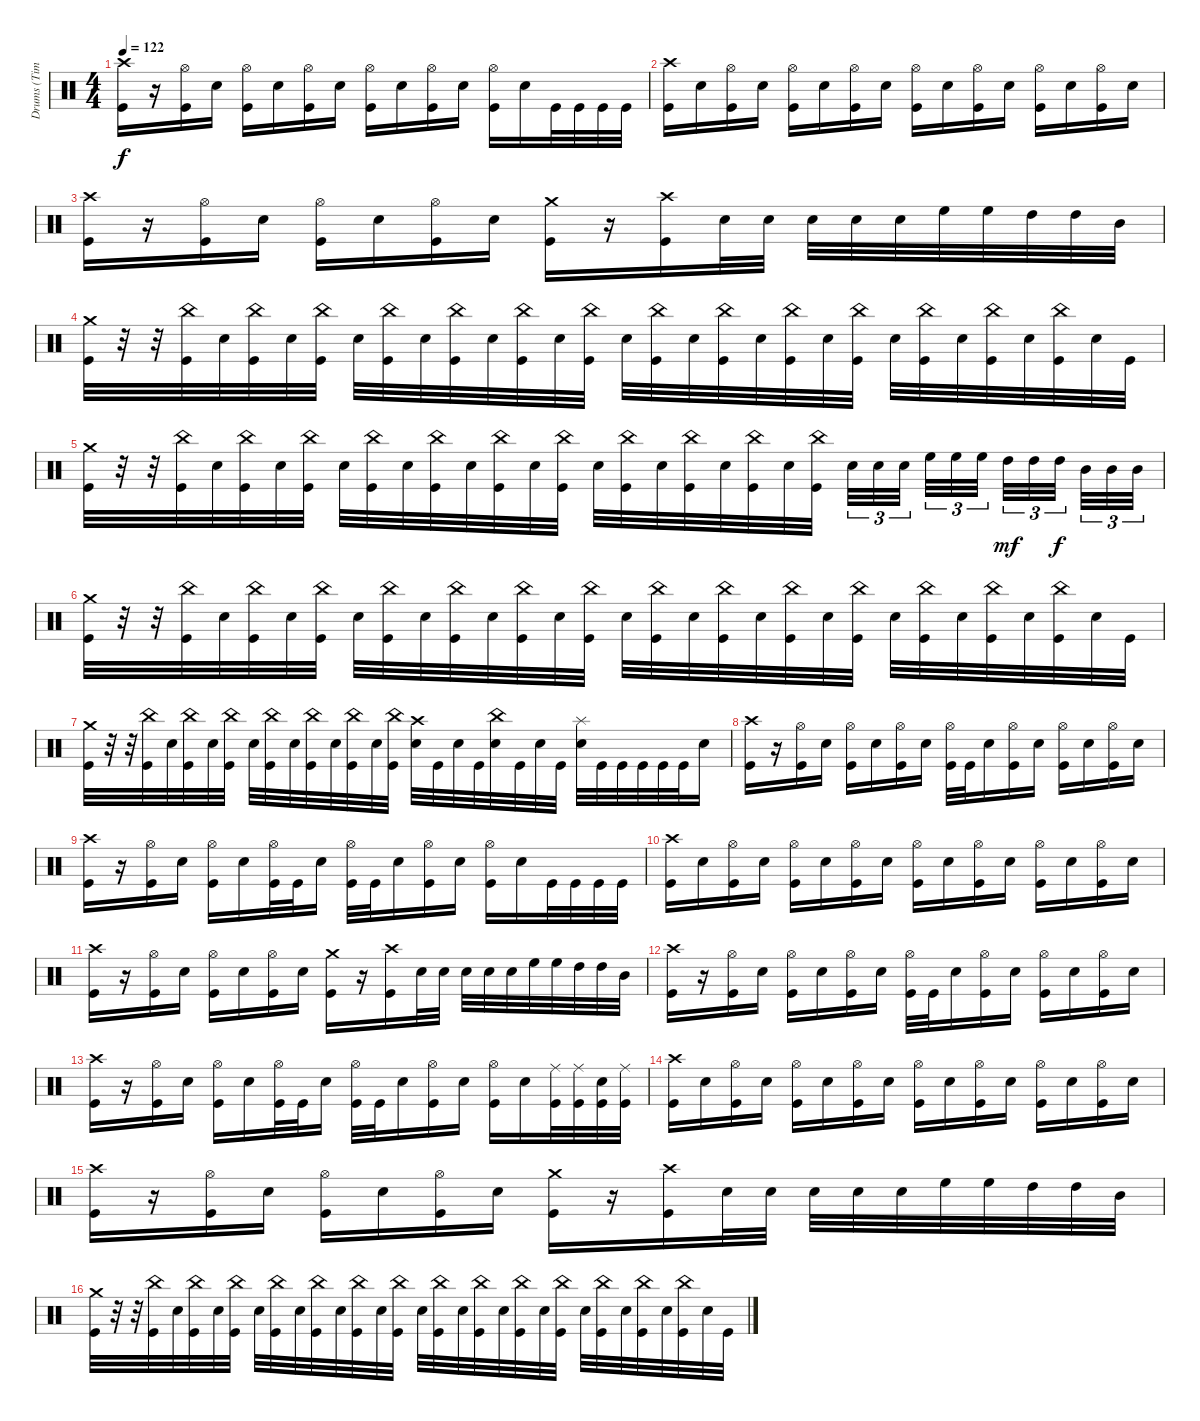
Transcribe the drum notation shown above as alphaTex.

\track ("Drums (Tim Yeung)" "Drums (Tim") {instrument percussion}
\staff {score}
\articulation defaults
\ts (4 4)
\tempo 122
\clef neutral
\ks c
("Crash high (hit)" "Kick (hit)").16{dy f} r.16 ("Hi-Hat (open)" "Kick (hit)").16 "Electric Snare (hit)".16 ("Hi-Hat (open)" "Kick (hit)").16 "Electric Snare (hit)".16 ("Hi-Hat (open)" "Kick (hit)").16 "Electric Snare (hit)".16 ("Hi-Hat (open)" "Kick (hit)").16 "Electric Snare (hit)".16 ("Hi-Hat (open)" "Kick (hit)").16 "Electric Snare (hit)".16 ("Hi-Hat (open)" "Kick (hit)").16 "Electric Snare (hit)".16 "Kick (hit)".32 "Kick (hit)".32 "Kick (hit)".32 "Kick (hit)".32 |
("Crash high (hit)" "Kick (hit)").16 "Electric Snare (hit)".16 ("Hi-Hat (open)" "Kick (hit)").16 "Electric Snare (hit)".16 ("Hi-Hat (open)" "Kick (hit)").16 "Electric Snare (hit)".16 ("Hi-Hat (open)" "Kick (hit)").16 "Electric Snare (hit)".16 ("Hi-Hat (open)" "Kick (hit)").16 "Electric Snare (hit)".16 ("Hi-Hat (open)" "Kick (hit)").16 "Electric Snare (hit)".16 ("Hi-Hat (open)" "Kick (hit)").16 "Electric Snare (hit)".16 ("Hi-Hat (open)" "Kick (hit)").16 "Electric Snare (hit)".16 |
("Crash high (hit)" "Kick (hit)").16 r.16 ("Hi-Hat (open)" "Kick (hit)").16 "Electric Snare (hit)".16 ("Hi-Hat (open)" "Kick (hit)").16 "Electric Snare (hit)".16 ("Hi-Hat (open)" "Kick (hit)").16 "Electric Snare (hit)".16 ("Crash medium (hit)" "Kick (hit)").16 r.16 ("Crash high (hit)" "Kick (hit)").16 "Electric Snare (hit)".32 "Electric Snare (hit)".32 "Electric Snare (hit)".32 "Electric Snare (hit)".32 "Electric Snare (hit)".32 "High Floor Tom (hit)".32 "High Floor Tom (hit)".32 "High Tom (hit)".32 "High Tom (hit)".32 "Mid Tom (hit)".32 |
("Crash medium (hit)" "Kick (hit)").32 r.32 r.32 ("China (hit)" "Kick (hit)").32 "Electric Snare (hit)".32 ("China (hit)" "Kick (hit)").32 "Electric Snare (hit)".32 ("China (hit)" "Kick (hit)").32 "Electric Snare (hit)".32 ("China (hit)" "Kick (hit)").32 "Electric Snare (hit)".32 ("China (hit)" "Kick (hit)").32 "Electric Snare (hit)".32 ("China (hit)" "Kick (hit)").32 "Electric Snare (hit)".32 ("China (hit)" "Kick (hit)").32 "Electric Snare (hit)".32 ("China (hit)" "Kick (hit)").32 "Electric Snare (hit)".32 ("China (hit)" "Kick (hit)").32 "Electric Snare (hit)".32 ("China (hit)" "Kick (hit)").32 "Electric Snare (hit)".32 ("China (hit)" "Kick (hit)").32 "Electric Snare (hit)".32 ("China (hit)" "Kick (hit)").32 "Electric Snare (hit)".32 ("China (hit)" "Kick (hit)").32 "Electric Snare (hit)".32 ("China (hit)" "Kick (hit)").32 "Electric Snare (hit)".32 "Kick (hit)".32 |
("Crash medium (hit)" "Kick (hit)").32 r.32 r.32 ("China (hit)" "Kick (hit)").32 "Electric Snare (hit)".32 ("China (hit)" "Kick (hit)").32 "Electric Snare (hit)".32 ("China (hit)" "Kick (hit)").32 "Electric Snare (hit)".32 ("China (hit)" "Kick (hit)").32 "Electric Snare (hit)".32 ("China (hit)" "Kick (hit)").32 "Electric Snare (hit)".32 ("China (hit)" "Kick (hit)").32 "Electric Snare (hit)".32 ("China (hit)" "Kick (hit)").32 "Electric Snare (hit)".32 ("China (hit)" "Kick (hit)").32 "Electric Snare (hit)".32 ("China (hit)" "Kick (hit)").32 "Electric Snare (hit)".32 ("China (hit)" "Kick (hit)").32 "Electric Snare (hit)".32 ("China (hit)" "Kick (hit)").32 "Electric Snare (hit)".32{tu (3 2)} "Electric Snare (hit)".32{tu (3 2)} "Electric Snare (hit)".32{tu (3 2)} "High Floor Tom (hit)".32{tu (3 2)} "High Floor Tom (hit)".32{tu (3 2)} "High Floor Tom (hit)".32{tu (3 2)} "High Tom (hit)".32{tu (3 2) dy mf} "High Tom (hit)".32{tu (3 2)} "High Tom (hit)".32{tu (3 2) dy f} "Mid Tom (hit)".32{tu (3 2)} "Mid Tom (hit)".32{tu (3 2)} "Mid Tom (hit)".32{tu (3 2)} |
("Crash medium (hit)" "Kick (hit)").32 r.32 r.32 ("China (hit)" "Kick (hit)").32 "Electric Snare (hit)".32 ("China (hit)" "Kick (hit)").32 "Electric Snare (hit)".32 ("China (hit)" "Kick (hit)").32 "Electric Snare (hit)".32 ("China (hit)" "Kick (hit)").32 "Electric Snare (hit)".32 ("China (hit)" "Kick (hit)").32 "Electric Snare (hit)".32 ("China (hit)" "Kick (hit)").32 "Electric Snare (hit)".32 ("China (hit)" "Kick (hit)").32 "Electric Snare (hit)".32 ("China (hit)" "Kick (hit)").32 "Electric Snare (hit)".32 ("China (hit)" "Kick (hit)").32 "Electric Snare (hit)".32 ("China (hit)" "Kick (hit)").32 "Electric Snare (hit)".32 ("China (hit)" "Kick (hit)").32 "Electric Snare (hit)".32 ("China (hit)" "Kick (hit)").32 "Electric Snare (hit)".32 ("China (hit)" "Kick (hit)").32 "Electric Snare (hit)".32 ("China (hit)" "Kick (hit)").32 "Electric Snare (hit)".32 "Kick (hit)".32 |
("Crash medium (hit)" "Kick (hit)").32 r.32 r.32 ("China (hit)" "Kick (hit)").32 "Electric Snare (hit)".32 ("China (hit)" "Kick (hit)").32 "Electric Snare (hit)".32 ("China (hit)" "Kick (hit)").32 "Electric Snare (hit)".32 ("China (hit)" "Kick (hit)").32 "Electric Snare (hit)".32 ("China (hit)" "Kick (hit)").32 "Electric Snare (hit)".32 ("China (hit)" "Kick (hit)").32 "Electric Snare (hit)".32 ("China (hit)" "Kick (hit)").32 ("Crash high (hit)" "Electric Snare (hit)").32 "Kick (hit)".32 "Electric Snare (hit)".32 "Kick (hit)".32 ("China (hit)" "Electric Snare (hit)").32 "Kick (hit)".32 "Electric Snare (hit)".32 "Kick (hit)".32 ("Splash (hit)" "Electric Snare (hit)").32 "Kick (hit)".32 "Kick (hit)".32 "Kick (hit)".32 "Kick (hit)".32 "Kick (hit)".32 "Electric Snare (hit)".16 |
("Crash high (hit)" "Kick (hit)").16 r.16 ("Hi-Hat (open)" "Kick (hit)").16 "Electric Snare (hit)".16 ("Hi-Hat (open)" "Kick (hit)").16 "Electric Snare (hit)".16 ("Hi-Hat (open)" "Kick (hit)").16 "Electric Snare (hit)".16 ("Hi-Hat (open)" "Kick (hit)").32 "Kick (hit)".32 "Electric Snare (hit)".16 ("Hi-Hat (open)" "Kick (hit)").16 "Electric Snare (hit)".16 ("Hi-Hat (open)" "Kick (hit)").16 "Electric Snare (hit)".16 ("Hi-Hat (open)" "Kick (hit)").16 "Electric Snare (hit)".16 |
("Crash high (hit)" "Kick (hit)").16 r.16 ("Hi-Hat (open)" "Kick (hit)").16 "Electric Snare (hit)".16 ("Hi-Hat (open)" "Kick (hit)").16 "Electric Snare (hit)".16 ("Hi-Hat (open)" "Kick (hit)").32 "Kick (hit)".32 "Electric Snare (hit)".16 ("Hi-Hat (open)" "Kick (hit)").32 "Kick (hit)".32 "Electric Snare (hit)".16 ("Hi-Hat (open)" "Kick (hit)").16 "Electric Snare (hit)".16 ("Hi-Hat (open)" "Kick (hit)").16 "Electric Snare (hit)".16 "Kick (hit)".32 "Kick (hit)".32 "Kick (hit)".32 "Kick (hit)".32 |
("Crash high (hit)" "Kick (hit)").16 "Electric Snare (hit)".16 ("Hi-Hat (open)" "Kick (hit)").16 "Electric Snare (hit)".16 ("Hi-Hat (open)" "Kick (hit)").16 "Electric Snare (hit)".16 ("Hi-Hat (open)" "Kick (hit)").16 "Electric Snare (hit)".16 ("Hi-Hat (open)" "Kick (hit)").16 "Electric Snare (hit)".16 ("Hi-Hat (open)" "Kick (hit)").16 "Electric Snare (hit)".16 ("Hi-Hat (open)" "Kick (hit)").16 "Electric Snare (hit)".16 ("Hi-Hat (open)" "Kick (hit)").16 "Electric Snare (hit)".16 |
("Crash high (hit)" "Kick (hit)").16 r.16 ("Hi-Hat (open)" "Kick (hit)").16 "Electric Snare (hit)".16 ("Hi-Hat (open)" "Kick (hit)").16 "Electric Snare (hit)".16 ("Hi-Hat (open)" "Kick (hit)").16 "Electric Snare (hit)".16 ("Crash medium (hit)" "Kick (hit)").16 r.16 ("Crash high (hit)" "Kick (hit)").16 "Electric Snare (hit)".32 "Electric Snare (hit)".32 "Electric Snare (hit)".32 "Electric Snare (hit)".32 "Electric Snare (hit)".32 "High Floor Tom (hit)".32 "High Floor Tom (hit)".32 "High Tom (hit)".32 "High Tom (hit)".32 "Mid Tom (hit)".32 |
("Crash high (hit)" "Kick (hit)").16 r.16 ("Hi-Hat (open)" "Kick (hit)").16 "Electric Snare (hit)".16 ("Hi-Hat (open)" "Kick (hit)").16 "Electric Snare (hit)".16 ("Hi-Hat (open)" "Kick (hit)").16 "Electric Snare (hit)".16 ("Hi-Hat (open)" "Kick (hit)").32 "Kick (hit)".32 "Electric Snare (hit)".16 ("Hi-Hat (open)" "Kick (hit)").16 "Electric Snare (hit)".16 ("Hi-Hat (open)" "Kick (hit)").16 "Electric Snare (hit)".16 ("Hi-Hat (open)" "Kick (hit)").16 "Electric Snare (hit)".16 |
("Crash high (hit)" "Kick (hit)").16 r.16 ("Hi-Hat (open)" "Kick (hit)").16 "Electric Snare (hit)".16 ("Hi-Hat (open)" "Kick (hit)").16 "Electric Snare (hit)".16 ("Hi-Hat (open)" "Kick (hit)").32 "Kick (hit)".32 "Electric Snare (hit)".16 ("Hi-Hat (open)" "Kick (hit)").32 "Kick (hit)".32 "Electric Snare (hit)".16 ("Hi-Hat (open)" "Kick (hit)").16 "Electric Snare (hit)".16 ("Hi-Hat (open)" "Kick (hit)").16 "Electric Snare (hit)".16 ("Ride (middle)" "Kick (hit)").32 ("Ride (middle)" "Kick (hit)").32 ("Electric Snare (hit)" "Kick (hit)").32 ("Ride (middle)" "Kick (hit)").32 |
("Crash high (hit)" "Kick (hit)").16 "Electric Snare (hit)".16 ("Hi-Hat (open)" "Kick (hit)").16 "Electric Snare (hit)".16 ("Hi-Hat (open)" "Kick (hit)").16 "Electric Snare (hit)".16 ("Hi-Hat (open)" "Kick (hit)").16 "Electric Snare (hit)".16 ("Hi-Hat (open)" "Kick (hit)").16 "Electric Snare (hit)".16 ("Hi-Hat (open)" "Kick (hit)").16 "Electric Snare (hit)".16 ("Hi-Hat (open)" "Kick (hit)").16 "Electric Snare (hit)".16 ("Hi-Hat (open)" "Kick (hit)").16 "Electric Snare (hit)".16 |
("Crash high (hit)" "Kick (hit)").16 r.16 ("Hi-Hat (open)" "Kick (hit)").16 "Electric Snare (hit)".16 ("Hi-Hat (open)" "Kick (hit)").16 "Electric Snare (hit)".16 ("Hi-Hat (open)" "Kick (hit)").16 "Electric Snare (hit)".16 ("Crash medium (hit)" "Kick (hit)").16 r.16 ("Crash high (hit)" "Kick (hit)").16 "Electric Snare (hit)".32 "Electric Snare (hit)".32 "Electric Snare (hit)".32 "Electric Snare (hit)".32 "Electric Snare (hit)".32 "High Floor Tom (hit)".32 "High Floor Tom (hit)".32 "High Tom (hit)".32 "High Tom (hit)".32 "Mid Tom (hit)".32 |
("Crash medium (hit)" "Kick (hit)").32 r.32 r.32 ("China (hit)" "Kick (hit)").32 "Electric Snare (hit)".32 ("China (hit)" "Kick (hit)").32 "Electric Snare (hit)".32 ("China (hit)" "Kick (hit)").32 "Electric Snare (hit)".32 ("China (hit)" "Kick (hit)").32 "Electric Snare (hit)".32 ("China (hit)" "Kick (hit)").32 "Electric Snare (hit)".32 ("China (hit)" "Kick (hit)").32 "Electric Snare (hit)".32 ("China (hit)" "Kick (hit)").32 "Electric Snare (hit)".32 ("China (hit)" "Kick (hit)").32 "Electric Snare (hit)".32 ("China (hit)" "Kick (hit)").32 "Electric Snare (hit)".32 ("China (hit)" "Kick (hit)").32 "Electric Snare (hit)".32 ("China (hit)" "Kick (hit)").32 "Electric Snare (hit)".32 ("China (hit)" "Kick (hit)").32 "Electric Snare (hit)".32 ("China (hit)" "Kick (hit)").32 "Electric Snare (hit)".32 ("China (hit)" "Kick (hit)").32 "Electric Snare (hit)".32 "Kick (hit)".32
